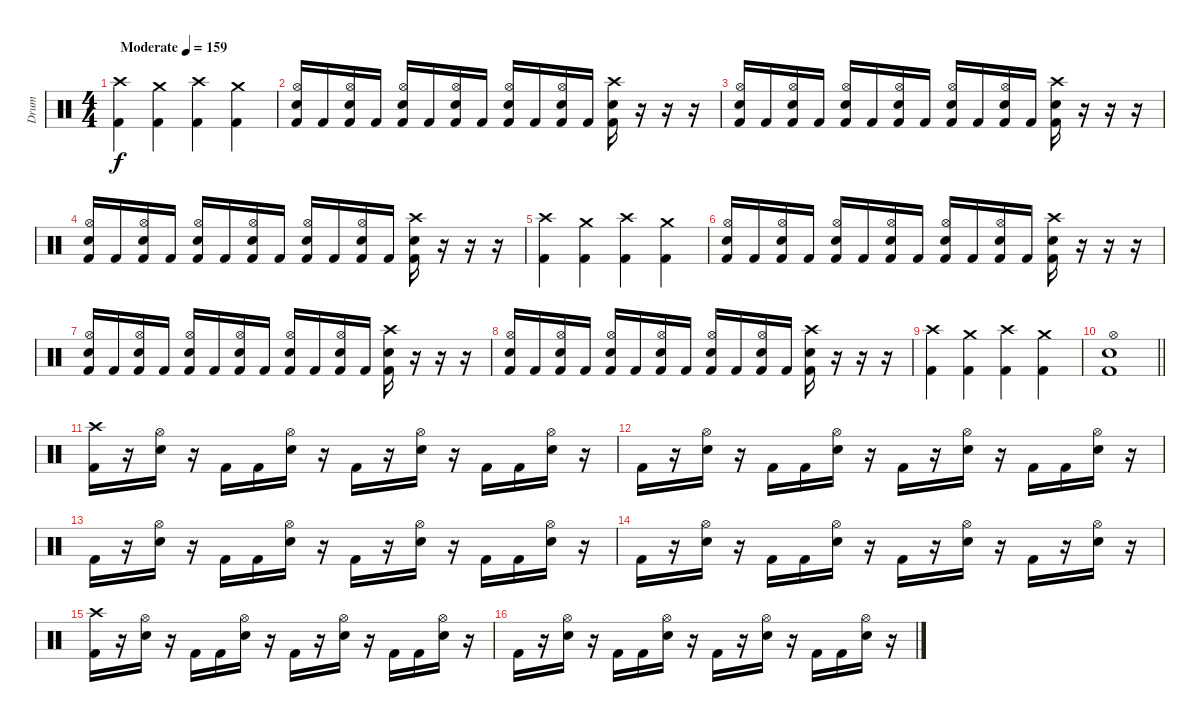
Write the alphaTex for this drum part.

\track ("Drum" "Drum") {instrument percussion}
\staff {score}
\articulation defaults
\ts (4 4)
\section ("" "")
\tempo (159 "Moderate")
\clef neutral
\ks c
("Crash high (hit)" "Kick (hit) 2").4{dy f} ("Crash medium (hit)" "Kick (hit) 2").4 ("Crash high (hit)" "Kick (hit) 2").4 ("Crash medium (hit)" "Kick (hit) 2").4 |
("Hi-Hat (open)" "Snare (hit) 2" "Kick (hit) 2").16 "Kick (hit) 2".16 ("Hi-Hat (open)" "Snare (hit) 2" "Kick (hit) 2").16 "Kick (hit) 2".16 ("Hi-Hat (open)" "Snare (hit) 2" "Kick (hit) 2").16 "Kick (hit) 2".16 ("Hi-Hat (open)" "Snare (hit) 2" "Kick (hit) 2").16 "Kick (hit) 2".16 ("Hi-Hat (open)" "Snare (hit) 2" "Kick (hit) 2").16 "Kick (hit) 2".16 ("Hi-Hat (open)" "Snare (hit) 2" "Kick (hit) 2").16 "Kick (hit) 2".16 ("Crash high (hit)" "Snare (hit) 2" "Kick (hit) 2").16 r.16 r.16 r.16 |
("Hi-Hat (open)" "Snare (hit) 2" "Kick (hit) 2").16 "Kick (hit) 2".16 ("Hi-Hat (open)" "Snare (hit) 2" "Kick (hit) 2").16 "Kick (hit) 2".16 ("Hi-Hat (open)" "Snare (hit) 2" "Kick (hit) 2").16 "Kick (hit) 2".16 ("Hi-Hat (open)" "Snare (hit) 2" "Kick (hit) 2").16 "Kick (hit) 2".16 ("Hi-Hat (open)" "Snare (hit) 2" "Kick (hit) 2").16 "Kick (hit) 2".16 ("Hi-Hat (open)" "Snare (hit) 2" "Kick (hit) 2").16 "Kick (hit) 2".16 ("Crash high (hit)" "Snare (hit) 2" "Kick (hit) 2").16 r.16 r.16 r.16 |
("Hi-Hat (open)" "Snare (hit) 2" "Kick (hit) 2").16 "Kick (hit) 2".16 ("Hi-Hat (open)" "Snare (hit) 2" "Kick (hit) 2").16 "Kick (hit) 2".16 ("Hi-Hat (open)" "Snare (hit) 2" "Kick (hit) 2").16 "Kick (hit) 2".16 ("Hi-Hat (open)" "Snare (hit) 2" "Kick (hit) 2").16 "Kick (hit) 2".16 ("Hi-Hat (open)" "Snare (hit) 2" "Kick (hit) 2").16 "Kick (hit) 2".16 ("Hi-Hat (open)" "Snare (hit) 2" "Kick (hit) 2").16 "Kick (hit) 2".16 ("Crash high (hit)" "Snare (hit) 2" "Kick (hit) 2").16 r.16 r.16 r.16 |
("Crash high (hit)" "Kick (hit) 2").4 ("Crash medium (hit)" "Kick (hit) 2").4 ("Crash high (hit)" "Kick (hit) 2").4 ("Crash medium (hit)" "Kick (hit) 2").4 |
("Hi-Hat (open)" "Snare (hit) 2" "Kick (hit) 2").16 "Kick (hit) 2".16 ("Hi-Hat (open)" "Snare (hit) 2" "Kick (hit) 2").16 "Kick (hit) 2".16 ("Hi-Hat (open)" "Snare (hit) 2" "Kick (hit) 2").16 "Kick (hit) 2".16 ("Hi-Hat (open)" "Snare (hit) 2" "Kick (hit) 2").16 "Kick (hit) 2".16 ("Hi-Hat (open)" "Snare (hit) 2" "Kick (hit) 2").16 "Kick (hit) 2".16 ("Hi-Hat (open)" "Snare (hit) 2" "Kick (hit) 2").16 "Kick (hit) 2".16 ("Crash high (hit)" "Snare (hit) 2" "Kick (hit) 2").16 r.16 r.16 r.16 |
("Hi-Hat (open)" "Snare (hit) 2" "Kick (hit) 2").16 "Kick (hit) 2".16 ("Hi-Hat (open)" "Snare (hit) 2" "Kick (hit) 2").16 "Kick (hit) 2".16 ("Hi-Hat (open)" "Snare (hit) 2" "Kick (hit) 2").16 "Kick (hit) 2".16 ("Hi-Hat (open)" "Snare (hit) 2" "Kick (hit) 2").16 "Kick (hit) 2".16 ("Hi-Hat (open)" "Snare (hit) 2" "Kick (hit) 2").16 "Kick (hit) 2".16 ("Hi-Hat (open)" "Snare (hit) 2" "Kick (hit) 2").16 "Kick (hit) 2".16 ("Crash high (hit)" "Snare (hit) 2" "Kick (hit) 2").16 r.16 r.16 r.16 |
("Hi-Hat (open)" "Snare (hit) 2" "Kick (hit) 2").16 "Kick (hit) 2".16 ("Hi-Hat (open)" "Snare (hit) 2" "Kick (hit) 2").16 "Kick (hit) 2".16 ("Hi-Hat (open)" "Snare (hit) 2" "Kick (hit) 2").16 "Kick (hit) 2".16 ("Hi-Hat (open)" "Snare (hit) 2" "Kick (hit) 2").16 "Kick (hit) 2".16 ("Hi-Hat (open)" "Snare (hit) 2" "Kick (hit) 2").16 "Kick (hit) 2".16 ("Hi-Hat (open)" "Snare (hit) 2" "Kick (hit) 2").16 "Kick (hit) 2".16 ("Crash high (hit)" "Snare (hit) 2" "Kick (hit) 2").16 r.16 r.16 r.16 |
("Crash high (hit)" "Kick (hit) 2").4 ("Crash medium (hit)" "Kick (hit) 2").4 ("Crash high (hit)" "Kick (hit) 2").4 ("Crash medium (hit)" "Kick (hit) 2").4 |
\barLineRight lightlight
("Snare (hit) 2" "Hi-Hat (open)" "Kick (hit) 2").1 |
\section ("" "")
("Crash high (hit)" "Kick (hit) 2").16 r.16 ("Hi-Hat (open)" "Snare (hit) 2").16 r.16 "Kick (hit) 2".16 "Kick (hit) 2".16 ("Hi-Hat (open)" "Snare (hit) 2").16 r.16 "Kick (hit) 2".16 r.16 ("Hi-Hat (open)" "Snare (hit) 2").16 r.16 "Kick (hit) 2".16 "Kick (hit) 2".16 ("Hi-Hat (open)" "Snare (hit) 2").16 r.16 |
"Kick (hit) 2".16 r.16 ("Hi-Hat (open)" "Snare (hit) 2").16 r.16 "Kick (hit) 2".16 "Kick (hit) 2".16 ("Hi-Hat (open)" "Snare (hit) 2").16 r.16 "Kick (hit) 2".16 r.16 ("Hi-Hat (open)" "Snare (hit) 2").16 r.16 "Kick (hit) 2".16 "Kick (hit) 2".16 ("Hi-Hat (open)" "Snare (hit) 2").16 r.16 |
"Kick (hit) 2".16 r.16 ("Hi-Hat (open)" "Snare (hit) 2").16 r.16 "Kick (hit) 2".16 "Kick (hit) 2".16 ("Hi-Hat (open)" "Snare (hit) 2").16 r.16 "Kick (hit) 2".16 r.16 ("Hi-Hat (open)" "Snare (hit) 2").16 r.16 "Kick (hit) 2".16 "Kick (hit) 2".16 ("Hi-Hat (open)" "Snare (hit) 2").16 r.16 |
"Kick (hit) 2".16 r.16 ("Hi-Hat (open)" "Snare (hit) 2").16 r.16 "Kick (hit) 2".16 "Kick (hit) 2".16 ("Hi-Hat (open)" "Snare (hit) 2").16 r.16 "Kick (hit) 2".16 r.16 ("Hi-Hat (open)" "Snare (hit) 2").16 r.16 "Kick (hit) 2".16 r.16 ("Hi-Hat (open)" "Snare (hit) 2").16 r.16 |
("Crash high (hit)" "Kick (hit) 2").16 r.16 ("Hi-Hat (open)" "Snare (hit) 2").16 r.16 "Kick (hit) 2".16 "Kick (hit) 2".16 ("Hi-Hat (open)" "Snare (hit) 2").16 r.16 "Kick (hit) 2".16 r.16 ("Hi-Hat (open)" "Snare (hit) 2").16 r.16 "Kick (hit) 2".16 "Kick (hit) 2".16 ("Hi-Hat (open)" "Snare (hit) 2").16 r.16 |
"Kick (hit) 2".16 r.16 ("Hi-Hat (open)" "Snare (hit) 2").16 r.16 "Kick (hit) 2".16 "Kick (hit) 2".16 ("Hi-Hat (open)" "Snare (hit) 2").16 r.16 "Kick (hit) 2".16 r.16 ("Hi-Hat (open)" "Snare (hit) 2").16 r.16 "Kick (hit) 2".16 "Kick (hit) 2".16 ("Hi-Hat (open)" "Snare (hit) 2").16 r.16
